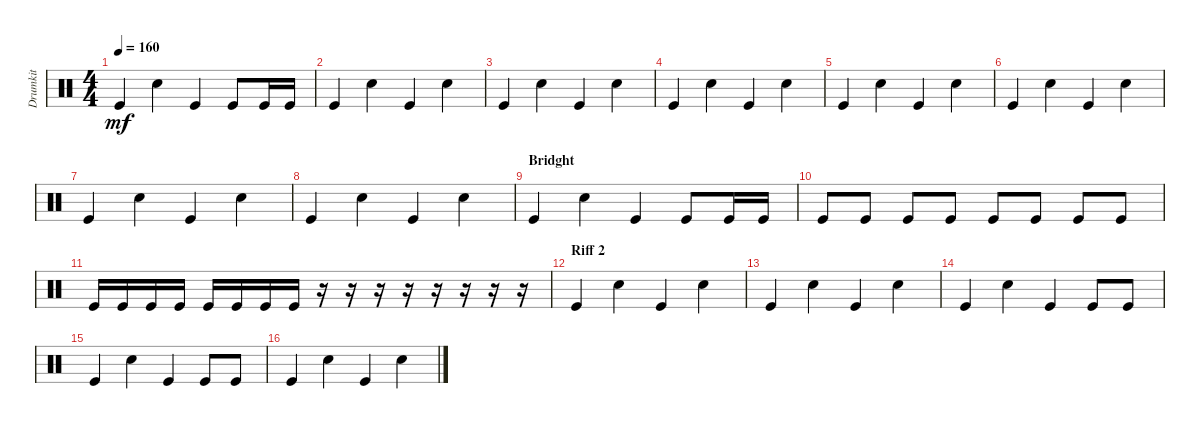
\track ("Drumkit" "Drumkit") {instrument percussion}
\staff {score}
\articulation defaults
\ts (4 4)
\tempo 160
\clef neutral
\ks c "Kick (hit)".4{dy mf} "Hand Clap (hit)".4 "Kick (hit)".4 "Kick (hit)".8 "Kick (hit)".16 "Kick (hit)".16
|
"Kick (hit)".4 "Hand Clap (hit)".4 "Kick (hit)".4 "Hand Clap (hit)".4 |
"Kick (hit)".4 "Hand Clap (hit)".4 "Kick (hit)".4 "Hand Clap (hit)".4 |
"Kick (hit)".4 "Hand Clap (hit)".4 "Kick (hit)".4 "Hand Clap (hit)".4 |
"Kick (hit)".4 "Hand Clap (hit)".4 "Kick (hit)".4 "Hand Clap (hit)".4 |
"Kick (hit)".4 "Hand Clap (hit)".4 "Kick (hit)".4 "Hand Clap (hit)".4 |
"Kick (hit)".4 "Hand Clap (hit)".4 "Kick (hit)".4 "Hand Clap (hit)".4 |
"Kick (hit)".4 "Hand Clap (hit)".4 "Kick (hit)".4 "Hand Clap (hit)".4 |
\section ("" "Bridght")
"Kick (hit)".4 "Hand Clap (hit)".4 "Kick (hit)".4 "Kick (hit)".8 "Kick (hit)".16 "Kick (hit)".16 |
"Kick (hit)".8 "Kick (hit)".8 "Kick (hit)".8 "Kick (hit)".8 "Kick (hit)".8 "Kick (hit)".8 "Kick (hit)".8 "Kick (hit)".8 |
"Kick (hit)".16 "Kick (hit)".16 "Kick (hit)".16 "Kick (hit)".16 "Kick (hit)".16 "Kick (hit)".16 "Kick (hit)".16 "Kick (hit)".16 r.16 r.16 r.16 r.16 r.16 r.16 r.16 r.16 |
\section ("" "Riff 2")
"Kick (hit)".4 "Hand Clap (hit)".4 "Kick (hit)".4 "Hand Clap (hit)".4 |
"Kick (hit)".4 "Hand Clap (hit)".4 "Kick (hit)".4 "Hand Clap (hit)".4 |
"Kick (hit)".4 "Hand Clap (hit)".4 "Kick (hit)".4 "Kick (hit)".8 "Kick (hit)".8 |
"Kick (hit)".4 "Hand Clap (hit)".4 "Kick (hit)".4 "Kick (hit)".8 "Kick (hit)".8 |
"Kick (hit)".4 "Hand Clap (hit)".4 "Kick (hit)".4 "Hand Clap (hit)".4
